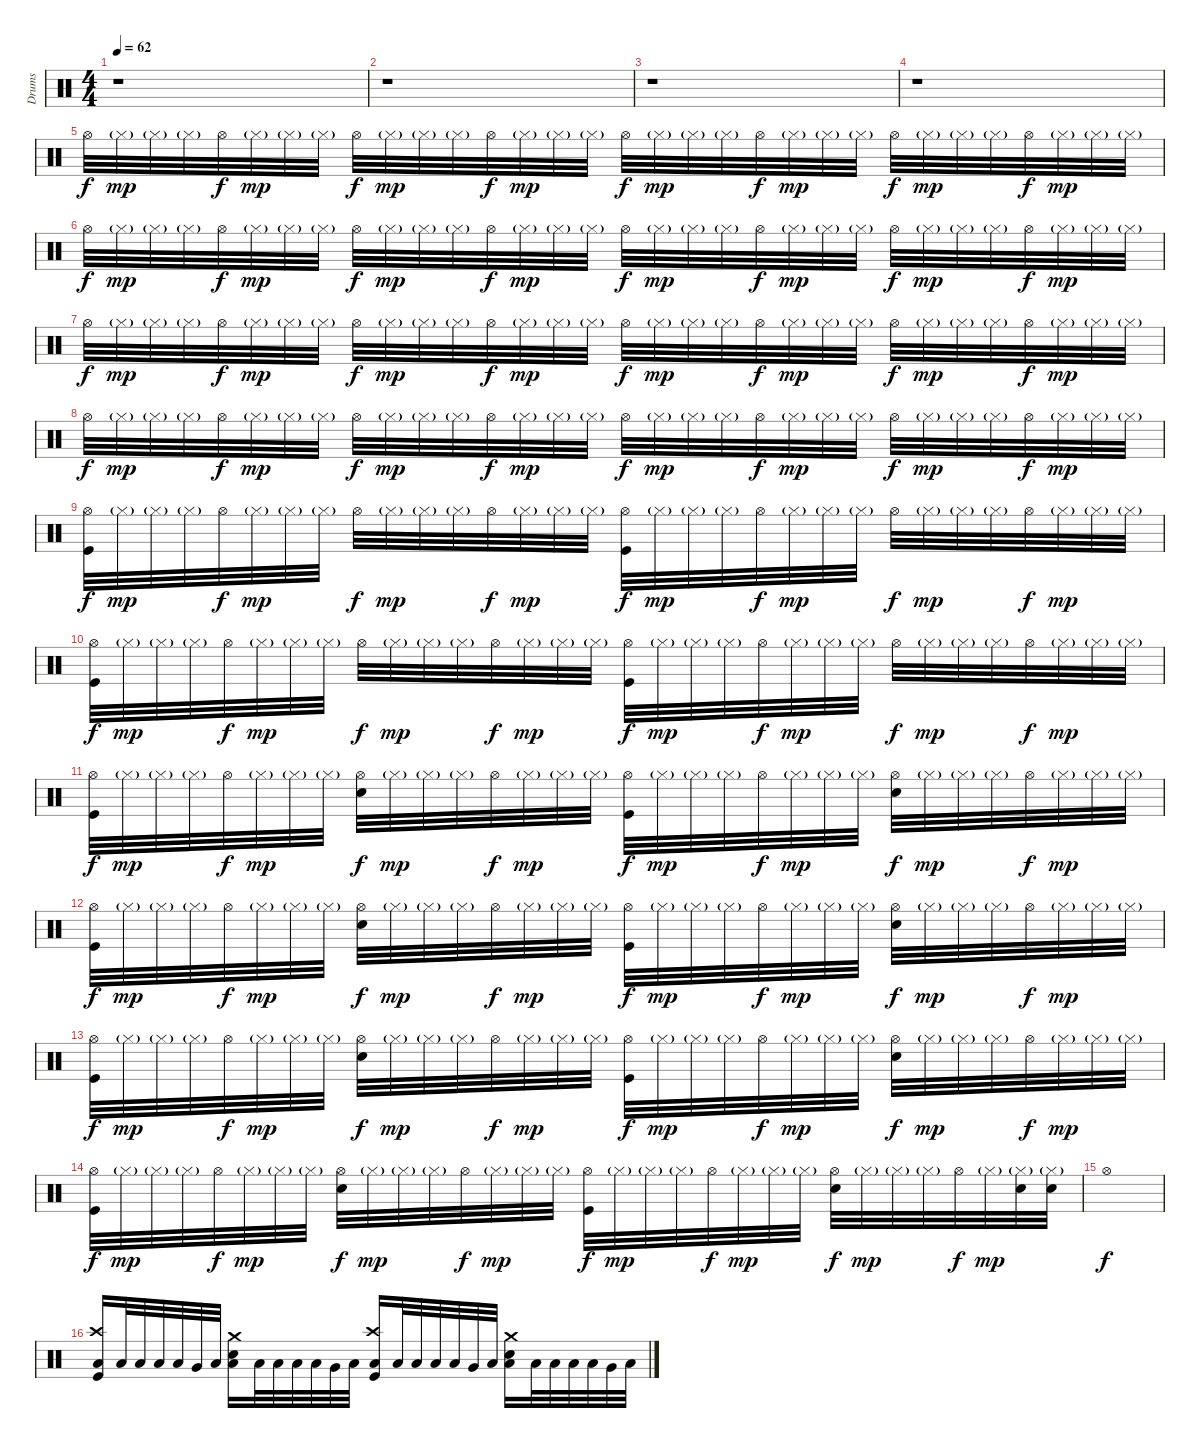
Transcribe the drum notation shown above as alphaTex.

\track ("Drums" "Drums") {instrument percussion}
\staff {score}
\articulation defaults
\ts (4 4)
\tempo 62
\clef neutral
\ks c
r.1{dy f} |
r.1 |
r.1 |
r.1 |
"Hi-Hat (open)".32 "Hi-Hat (closed)"{g}.32{dy mp} "Hi-Hat (closed)"{g}.32 "Hi-Hat (closed)"{g}.32 "Hi-Hat (open)".32{dy f} "Hi-Hat (closed)"{g}.32{dy mp} "Hi-Hat (closed)"{g}.32 "Hi-Hat (closed)"{g}.32 "Hi-Hat (open)".32{dy f} "Hi-Hat (closed)"{g}.32{dy mp} "Hi-Hat (closed)"{g}.32 "Hi-Hat (closed)"{g}.32 "Hi-Hat (open)".32{dy f} "Hi-Hat (closed)"{g}.32{dy mp} "Hi-Hat (closed)"{g}.32 "Hi-Hat (closed)"{g}.32 "Hi-Hat (open)".32{dy f} "Hi-Hat (closed)"{g}.32{dy mp} "Hi-Hat (closed)"{g}.32 "Hi-Hat (closed)"{g}.32 "Hi-Hat (open)".32{dy f} "Hi-Hat (closed)"{g}.32{dy mp} "Hi-Hat (closed)"{g}.32 "Hi-Hat (closed)"{g}.32 "Hi-Hat (open)".32{dy f} "Hi-Hat (closed)"{g}.32{dy mp} "Hi-Hat (closed)"{g}.32 "Hi-Hat (closed)"{g}.32 "Hi-Hat (open)".32{dy f} "Hi-Hat (closed)"{g}.32{dy mp} "Hi-Hat (closed)"{g}.32 "Hi-Hat (closed)"{g}.32 |
"Hi-Hat (open)".32{dy f} "Hi-Hat (closed)"{g}.32{dy mp} "Hi-Hat (closed)"{g}.32 "Hi-Hat (closed)"{g}.32 "Hi-Hat (open)".32{dy f} "Hi-Hat (closed)"{g}.32{dy mp} "Hi-Hat (closed)"{g}.32 "Hi-Hat (closed)"{g}.32 "Hi-Hat (open)".32{dy f} "Hi-Hat (closed)"{g}.32{dy mp} "Hi-Hat (closed)"{g}.32 "Hi-Hat (closed)"{g}.32 "Hi-Hat (open)".32{dy f} "Hi-Hat (closed)"{g}.32{dy mp} "Hi-Hat (closed)"{g}.32 "Hi-Hat (closed)"{g}.32 "Hi-Hat (open)".32{dy f} "Hi-Hat (closed)"{g}.32{dy mp} "Hi-Hat (closed)"{g}.32 "Hi-Hat (closed)"{g}.32 "Hi-Hat (open)".32{dy f} "Hi-Hat (closed)"{g}.32{dy mp} "Hi-Hat (closed)"{g}.32 "Hi-Hat (closed)"{g}.32 "Hi-Hat (open)".32{dy f} "Hi-Hat (closed)"{g}.32{dy mp} "Hi-Hat (closed)"{g}.32 "Hi-Hat (closed)"{g}.32 "Hi-Hat (open)".32{dy f} "Hi-Hat (closed)"{g}.32{dy mp} "Hi-Hat (closed)"{g}.32 "Hi-Hat (closed)"{g}.32 |
"Hi-Hat (open)".32{dy f} "Hi-Hat (closed)"{g}.32{dy mp} "Hi-Hat (closed)"{g}.32 "Hi-Hat (closed)"{g}.32 "Hi-Hat (open)".32{dy f} "Hi-Hat (closed)"{g}.32{dy mp} "Hi-Hat (closed)"{g}.32 "Hi-Hat (closed)"{g}.32 "Hi-Hat (open)".32{dy f} "Hi-Hat (closed)"{g}.32{dy mp} "Hi-Hat (closed)"{g}.32 "Hi-Hat (closed)"{g}.32 "Hi-Hat (open)".32{dy f} "Hi-Hat (closed)"{g}.32{dy mp} "Hi-Hat (closed)"{g}.32 "Hi-Hat (closed)"{g}.32 "Hi-Hat (open)".32{dy f} "Hi-Hat (closed)"{g}.32{dy mp} "Hi-Hat (closed)"{g}.32 "Hi-Hat (closed)"{g}.32 "Hi-Hat (open)".32{dy f} "Hi-Hat (closed)"{g}.32{dy mp} "Hi-Hat (closed)"{g}.32 "Hi-Hat (closed)"{g}.32 "Hi-Hat (open)".32{dy f} "Hi-Hat (closed)"{g}.32{dy mp} "Hi-Hat (closed)"{g}.32 "Hi-Hat (closed)"{g}.32 "Hi-Hat (open)".32{dy f} "Hi-Hat (closed)"{g}.32{dy mp} "Hi-Hat (closed)"{g}.32 "Hi-Hat (closed)"{g}.32 |
"Hi-Hat (open)".32{dy f} "Hi-Hat (closed)"{g}.32{dy mp} "Hi-Hat (closed)"{g}.32 "Hi-Hat (closed)"{g}.32 "Hi-Hat (open)".32{dy f} "Hi-Hat (closed)"{g}.32{dy mp} "Hi-Hat (closed)"{g}.32 "Hi-Hat (closed)"{g}.32 "Hi-Hat (open)".32{dy f} "Hi-Hat (closed)"{g}.32{dy mp} "Hi-Hat (closed)"{g}.32 "Hi-Hat (closed)"{g}.32 "Hi-Hat (open)".32{dy f} "Hi-Hat (closed)"{g}.32{dy mp} "Hi-Hat (closed)"{g}.32 "Hi-Hat (closed)"{g}.32 "Hi-Hat (open)".32{dy f} "Hi-Hat (closed)"{g}.32{dy mp} "Hi-Hat (closed)"{g}.32 "Hi-Hat (closed)"{g}.32 "Hi-Hat (open)".32{dy f} "Hi-Hat (closed)"{g}.32{dy mp} "Hi-Hat (closed)"{g}.32 "Hi-Hat (closed)"{g}.32 "Hi-Hat (open)".32{dy f} "Hi-Hat (closed)"{g}.32{dy mp} "Hi-Hat (closed)"{g}.32 "Hi-Hat (closed)"{g}.32 "Hi-Hat (open)".32{dy f} "Hi-Hat (closed)"{g}.32{dy mp} "Hi-Hat (closed)"{g}.32 "Hi-Hat (closed)"{g}.32 |
("Hi-Hat (open)" "Kick (hit)").32{dy f} "Hi-Hat (closed)"{g}.32{dy mp} "Hi-Hat (closed)"{g}.32 "Hi-Hat (closed)"{g}.32 "Hi-Hat (open)".32{dy f} "Hi-Hat (closed)"{g}.32{dy mp} "Hi-Hat (closed)"{g}.32 "Hi-Hat (closed)"{g}.32 "Hi-Hat (open)".32{dy f} "Hi-Hat (closed)"{g}.32{dy mp} "Hi-Hat (closed)"{g}.32 "Hi-Hat (closed)"{g}.32 "Hi-Hat (open)".32{dy f} "Hi-Hat (closed)"{g}.32{dy mp} "Hi-Hat (closed)"{g}.32 "Hi-Hat (closed)"{g}.32 ("Hi-Hat (open)" "Kick (hit)").32{dy f} "Hi-Hat (closed)"{g}.32{dy mp} "Hi-Hat (closed)"{g}.32 "Hi-Hat (closed)"{g}.32 "Hi-Hat (open)".32{dy f} "Hi-Hat (closed)"{g}.32{dy mp} "Hi-Hat (closed)"{g}.32 "Hi-Hat (closed)"{g}.32 "Hi-Hat (open)".32{dy f} "Hi-Hat (closed)"{g}.32{dy mp} "Hi-Hat (closed)"{g}.32 "Hi-Hat (closed)"{g}.32 "Hi-Hat (open)".32{dy f} "Hi-Hat (closed)"{g}.32{dy mp} "Hi-Hat (closed)"{g}.32 "Hi-Hat (closed)"{g}.32 |
("Hi-Hat (open)" "Kick (hit)").32{dy f} "Hi-Hat (closed)"{g}.32{dy mp} "Hi-Hat (closed)"{g}.32 "Hi-Hat (closed)"{g}.32 "Hi-Hat (open)".32{dy f} "Hi-Hat (closed)"{g}.32{dy mp} "Hi-Hat (closed)"{g}.32 "Hi-Hat (closed)"{g}.32 "Hi-Hat (open)".32{dy f} "Hi-Hat (closed)"{g}.32{dy mp} "Hi-Hat (closed)"{g}.32 "Hi-Hat (closed)"{g}.32 "Hi-Hat (open)".32{dy f} "Hi-Hat (closed)"{g}.32{dy mp} "Hi-Hat (closed)"{g}.32 "Hi-Hat (closed)"{g}.32 ("Hi-Hat (open)" "Kick (hit)").32{dy f} "Hi-Hat (closed)"{g}.32{dy mp} "Hi-Hat (closed)"{g}.32 "Hi-Hat (closed)"{g}.32 "Hi-Hat (open)".32{dy f} "Hi-Hat (closed)"{g}.32{dy mp} "Hi-Hat (closed)"{g}.32 "Hi-Hat (closed)"{g}.32 "Hi-Hat (open)".32{dy f} "Hi-Hat (closed)"{g}.32{dy mp} "Hi-Hat (closed)"{g}.32 "Hi-Hat (closed)"{g}.32 "Hi-Hat (open)".32{dy f} "Hi-Hat (closed)"{g}.32{dy mp} "Hi-Hat (closed)"{g}.32 "Hi-Hat (closed)"{g}.32 |
("Hi-Hat (open)" "Kick (hit)").32{dy f} "Hi-Hat (closed)"{g}.32{dy mp} "Hi-Hat (closed)"{g}.32 "Hi-Hat (closed)"{g}.32 "Hi-Hat (open)".32{dy f} "Hi-Hat (closed)"{g}.32{dy mp} "Hi-Hat (closed)"{g}.32 "Hi-Hat (closed)"{g}.32 ("Hi-Hat (open)" "Snare (hit) 2").32{dy f} "Hi-Hat (closed)"{g}.32{dy mp} "Hi-Hat (closed)"{g}.32 "Hi-Hat (closed)"{g}.32 "Hi-Hat (open)".32{dy f} "Hi-Hat (closed)"{g}.32{dy mp} "Hi-Hat (closed)"{g}.32 "Hi-Hat (closed)"{g}.32 ("Hi-Hat (open)" "Kick (hit)").32{dy f} "Hi-Hat (closed)"{g}.32{dy mp} "Hi-Hat (closed)"{g}.32 "Hi-Hat (closed)"{g}.32 "Hi-Hat (open)".32{dy f} "Hi-Hat (closed)"{g}.32{dy mp} "Hi-Hat (closed)"{g}.32 "Hi-Hat (closed)"{g}.32 ("Hi-Hat (open)" "Snare (hit) 2").32{dy f} "Hi-Hat (closed)"{g}.32{dy mp} "Hi-Hat (closed)"{g}.32 "Hi-Hat (closed)"{g}.32 "Hi-Hat (open)".32{dy f} "Hi-Hat (closed)"{g}.32{dy mp} "Hi-Hat (closed)"{g}.32 "Hi-Hat (closed)"{g}.32 |
("Hi-Hat (open)" "Kick (hit)").32{dy f} "Hi-Hat (closed)"{g}.32{dy mp} "Hi-Hat (closed)"{g}.32 "Hi-Hat (closed)"{g}.32 "Hi-Hat (open)".32{dy f} "Hi-Hat (closed)"{g}.32{dy mp} "Hi-Hat (closed)"{g}.32 "Hi-Hat (closed)"{g}.32 ("Hi-Hat (open)" "Snare (hit) 2").32{dy f} "Hi-Hat (closed)"{g}.32{dy mp} "Hi-Hat (closed)"{g}.32 "Hi-Hat (closed)"{g}.32 "Hi-Hat (open)".32{dy f} "Hi-Hat (closed)"{g}.32{dy mp} "Hi-Hat (closed)"{g}.32 "Hi-Hat (closed)"{g}.32 ("Hi-Hat (open)" "Kick (hit)").32{dy f} "Hi-Hat (closed)"{g}.32{dy mp} "Hi-Hat (closed)"{g}.32 "Hi-Hat (closed)"{g}.32 "Hi-Hat (open)".32{dy f} "Hi-Hat (closed)"{g}.32{dy mp} "Hi-Hat (closed)"{g}.32 "Hi-Hat (closed)"{g}.32 ("Hi-Hat (open)" "Snare (hit) 2").32{dy f} "Hi-Hat (closed)"{g}.32{dy mp} "Hi-Hat (closed)"{g}.32 "Hi-Hat (closed)"{g}.32 "Hi-Hat (open)".32{dy f} "Hi-Hat (closed)"{g}.32{dy mp} "Hi-Hat (closed)"{g}.32 "Hi-Hat (closed)"{g}.32 |
("Hi-Hat (open)" "Kick (hit)").32{dy f} "Hi-Hat (closed)"{g}.32{dy mp} "Hi-Hat (closed)"{g}.32 "Hi-Hat (closed)"{g}.32 "Hi-Hat (open)".32{dy f} "Hi-Hat (closed)"{g}.32{dy mp} "Hi-Hat (closed)"{g}.32 "Hi-Hat (closed)"{g}.32 ("Hi-Hat (open)" "Snare (hit) 2").32{dy f} "Hi-Hat (closed)"{g}.32{dy mp} "Hi-Hat (closed)"{g}.32 "Hi-Hat (closed)"{g}.32 "Hi-Hat (open)".32{dy f} "Hi-Hat (closed)"{g}.32{dy mp} "Hi-Hat (closed)"{g}.32 "Hi-Hat (closed)"{g}.32 ("Hi-Hat (open)" "Kick (hit)").32{dy f} "Hi-Hat (closed)"{g}.32{dy mp} "Hi-Hat (closed)"{g}.32 "Hi-Hat (closed)"{g}.32 "Hi-Hat (open)".32{dy f} "Hi-Hat (closed)"{g}.32{dy mp} "Hi-Hat (closed)"{g}.32 "Hi-Hat (closed)"{g}.32 ("Hi-Hat (open)" "Snare (hit) 2").32{dy f} "Hi-Hat (closed)"{g}.32{dy mp} "Hi-Hat (closed)"{g}.32 "Hi-Hat (closed)"{g}.32 "Hi-Hat (open)".32{dy f} "Hi-Hat (closed)"{g}.32{dy mp} "Hi-Hat (closed)"{g}.32 "Hi-Hat (closed)"{g}.32 |
("Hi-Hat (open)" "Kick (hit)").32{dy f} "Hi-Hat (closed)"{g}.32{dy mp} "Hi-Hat (closed)"{g}.32 "Hi-Hat (closed)"{g}.32 "Hi-Hat (open)".32{dy f} "Hi-Hat (closed)"{g}.32{dy mp} "Hi-Hat (closed)"{g}.32 "Hi-Hat (closed)"{g}.32 ("Hi-Hat (open)" "Snare (hit) 2").32{dy f} "Hi-Hat (closed)"{g}.32{dy mp} "Hi-Hat (closed)"{g}.32 "Hi-Hat (closed)"{g}.32 "Hi-Hat (open)".32{dy f} "Hi-Hat (closed)"{g}.32{dy mp} "Hi-Hat (closed)"{g}.32 "Hi-Hat (closed)"{g}.32 ("Hi-Hat (open)" "Kick (hit)").32{dy f} "Hi-Hat (closed)"{g}.32{dy mp} "Hi-Hat (closed)"{g}.32 "Hi-Hat (closed)"{g}.32 "Hi-Hat (open)".32{dy f} "Hi-Hat (closed)"{g}.32{dy mp} "Hi-Hat (closed)"{g}.32 "Hi-Hat (closed)"{g}.32 ("Hi-Hat (open)" "Snare (hit) 2").32{dy f} "Hi-Hat (closed)"{g}.32{dy mp} "Hi-Hat (closed)"{g}.32 "Hi-Hat (closed)"{g}.32 "Hi-Hat (open)".32{dy f} "Hi-Hat (closed)"{g}.32{dy mp} ("Hi-Hat (closed)"{g} "Snare (hit) 2").32 ("Hi-Hat (closed)"{g} "Snare (hit) 2").32 |
"Hi-Hat (open)".1{dy f} |
("Crash high (hit)" "Low Floor Tom (hit)" "Kick (hit)").16 "Low Floor Tom (hit)".32 "Low Floor Tom (hit)".32 "Low Tom (hit)".32 "Low Tom (hit)".32 "Very Low Tom (hit)".32 "Low Floor Tom (hit)".32 ("Crash medium (hit)" "Low Floor Tom (hit)" "Snare (hit) 2").16 "Low Floor Tom (hit)".32 "Low Floor Tom (hit)".32 "Low Tom (hit)".32 "Low Tom (hit)".32 "Very Low Tom (hit)".32 "Low Floor Tom (hit)".32 ("Crash high (hit)" "Low Floor Tom (hit)" "Kick (hit)").16 "Low Floor Tom (hit)".32 "Low Floor Tom (hit)".32 "Low Tom (hit)".32 "Low Tom (hit)".32 "Very Low Tom (hit)".32 "Low Floor Tom (hit)".32 ("Crash medium (hit)" "Low Floor Tom (hit)" "Snare (hit) 2").16 "Low Floor Tom (hit)".32 "Low Floor Tom (hit)".32 "Low Tom (hit)".32 "Low Tom (hit)".32 "Very Low Tom (hit)".32 "Low Floor Tom (hit)".32
